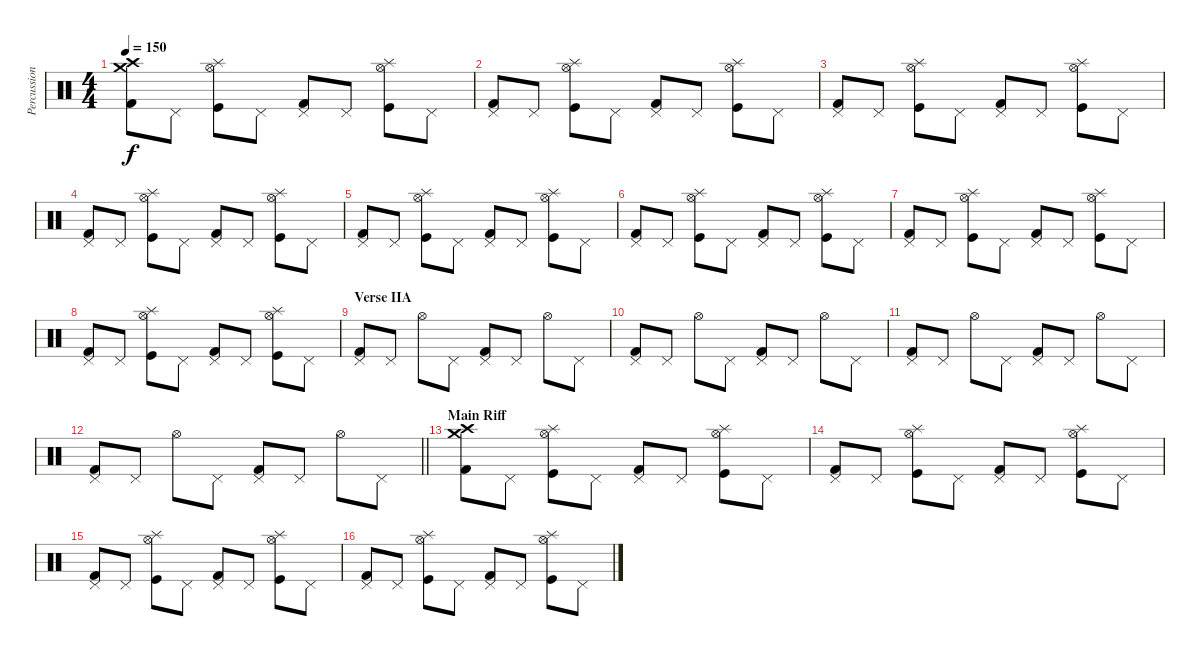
\track ("Percussion" "Percussion") {instrument percussion}
\staff {score}
\articulation defaults
\ts (4 4)
\tempo 150
\clef neutral
\ks c
("Crash high (hit)" "Crash medium (hit)" "Kick (hit) 2").8{dy f} "Pedal Hi-Hat (hit)".8 ("Hi-Hat (open)" "Splash (hit)" "Kick (hit)").8 "Pedal Hi-Hat (hit)".8 ("Pedal Hi-Hat (hit)" "Kick (hit) 2").8 "Pedal Hi-Hat (hit)".8 ("Hi-Hat (open)" "Splash (hit)" "Kick (hit)").8 "Pedal Hi-Hat (hit)".8 |
("Pedal Hi-Hat (hit)" "Kick (hit) 2").8 "Pedal Hi-Hat (hit)".8 ("Hi-Hat (open)" "Splash (hit)" "Kick (hit)").8 "Pedal Hi-Hat (hit)".8 ("Pedal Hi-Hat (hit)" "Kick (hit) 2").8 "Pedal Hi-Hat (hit)".8 ("Hi-Hat (open)" "Splash (hit)" "Kick (hit)").8 "Pedal Hi-Hat (hit)".8 |
("Pedal Hi-Hat (hit)" "Kick (hit) 2").8 "Pedal Hi-Hat (hit)".8 ("Hi-Hat (open)" "Splash (hit)" "Kick (hit)").8 "Pedal Hi-Hat (hit)".8 ("Pedal Hi-Hat (hit)" "Kick (hit) 2").8 "Pedal Hi-Hat (hit)".8 ("Hi-Hat (open)" "Splash (hit)" "Kick (hit)").8 "Pedal Hi-Hat (hit)".8 |
("Pedal Hi-Hat (hit)" "Kick (hit) 2").8 "Pedal Hi-Hat (hit)".8 ("Hi-Hat (open)" "Splash (hit)" "Kick (hit)").8 "Pedal Hi-Hat (hit)".8 ("Pedal Hi-Hat (hit)" "Kick (hit) 2").8 "Pedal Hi-Hat (hit)".8 ("Hi-Hat (open)" "Splash (hit)" "Kick (hit)").8 "Pedal Hi-Hat (hit)".8 |
("Pedal Hi-Hat (hit)" "Kick (hit) 2").8 "Pedal Hi-Hat (hit)".8 ("Hi-Hat (open)" "Splash (hit)" "Kick (hit)").8 "Pedal Hi-Hat (hit)".8 ("Pedal Hi-Hat (hit)" "Kick (hit) 2").8 "Pedal Hi-Hat (hit)".8 ("Hi-Hat (open)" "Splash (hit)" "Kick (hit)").8 "Pedal Hi-Hat (hit)".8 |
("Pedal Hi-Hat (hit)" "Kick (hit) 2").8 "Pedal Hi-Hat (hit)".8 ("Hi-Hat (open)" "Splash (hit)" "Kick (hit)").8 "Pedal Hi-Hat (hit)".8 ("Pedal Hi-Hat (hit)" "Kick (hit) 2").8 "Pedal Hi-Hat (hit)".8 ("Hi-Hat (open)" "Splash (hit)" "Kick (hit)").8 "Pedal Hi-Hat (hit)".8 |
("Pedal Hi-Hat (hit)" "Kick (hit) 2").8 "Pedal Hi-Hat (hit)".8 ("Hi-Hat (open)" "Splash (hit)" "Kick (hit)").8 "Pedal Hi-Hat (hit)".8 ("Pedal Hi-Hat (hit)" "Kick (hit) 2").8 "Pedal Hi-Hat (hit)".8 ("Hi-Hat (open)" "Splash (hit)" "Kick (hit)").8 "Pedal Hi-Hat (hit)".8 |
("Pedal Hi-Hat (hit)" "Kick (hit) 2").8 "Pedal Hi-Hat (hit)".8 ("Hi-Hat (open)" "Splash (hit)" "Kick (hit)").8 "Pedal Hi-Hat (hit)".8 ("Pedal Hi-Hat (hit)" "Kick (hit) 2").8 "Pedal Hi-Hat (hit)".8 ("Hi-Hat (open)" "Splash (hit)" "Kick (hit)").8 "Pedal Hi-Hat (hit)".8 |
\section ("" "Verse IIA")
("Pedal Hi-Hat (hit)" "Kick (hit) 2").8 "Pedal Hi-Hat (hit)".8 "Hi-Hat (open)".8 "Pedal Hi-Hat (hit)".8 ("Pedal Hi-Hat (hit)" "Kick (hit) 2").8 "Pedal Hi-Hat (hit)".8 "Hi-Hat (open)".8 "Pedal Hi-Hat (hit)".8 |
("Pedal Hi-Hat (hit)" "Kick (hit) 2").8 "Pedal Hi-Hat (hit)".8 "Hi-Hat (open)".8 "Pedal Hi-Hat (hit)".8 ("Pedal Hi-Hat (hit)" "Kick (hit) 2").8 "Pedal Hi-Hat (hit)".8 "Hi-Hat (open)".8 "Pedal Hi-Hat (hit)".8 |
("Pedal Hi-Hat (hit)" "Kick (hit) 2").8 "Pedal Hi-Hat (hit)".8 "Hi-Hat (open)".8 "Pedal Hi-Hat (hit)".8 ("Pedal Hi-Hat (hit)" "Kick (hit) 2").8 "Pedal Hi-Hat (hit)".8 "Hi-Hat (open)".8 "Pedal Hi-Hat (hit)".8 |
\barLineRight lightlight
("Pedal Hi-Hat (hit)" "Kick (hit) 2").8 "Pedal Hi-Hat (hit)".8 "Hi-Hat (open)".8 "Pedal Hi-Hat (hit)".8 ("Pedal Hi-Hat (hit)" "Kick (hit) 2").8 "Pedal Hi-Hat (hit)".8 "Hi-Hat (open)".8 "Pedal Hi-Hat (hit)".8 |
\section ("" "Main Riff")
("Crash high (hit)" "Crash medium (hit)" "Kick (hit) 2").8 "Pedal Hi-Hat (hit)".8 ("Hi-Hat (open)" "Splash (hit)" "Kick (hit)").8 "Pedal Hi-Hat (hit)".8 ("Pedal Hi-Hat (hit)" "Kick (hit) 2").8 "Pedal Hi-Hat (hit)".8 ("Hi-Hat (open)" "Splash (hit)" "Kick (hit)").8 "Pedal Hi-Hat (hit)".8 |
("Pedal Hi-Hat (hit)" "Kick (hit) 2").8 "Pedal Hi-Hat (hit)".8 ("Hi-Hat (open)" "Splash (hit)" "Kick (hit)").8 "Pedal Hi-Hat (hit)".8 ("Pedal Hi-Hat (hit)" "Kick (hit) 2").8 "Pedal Hi-Hat (hit)".8 ("Hi-Hat (open)" "Splash (hit)" "Kick (hit)").8 "Pedal Hi-Hat (hit)".8 |
("Pedal Hi-Hat (hit)" "Kick (hit) 2").8 "Pedal Hi-Hat (hit)".8 ("Hi-Hat (open)" "Splash (hit)" "Kick (hit)").8 "Pedal Hi-Hat (hit)".8 ("Pedal Hi-Hat (hit)" "Kick (hit) 2").8 "Pedal Hi-Hat (hit)".8 ("Hi-Hat (open)" "Splash (hit)" "Kick (hit)").8 "Pedal Hi-Hat (hit)".8 |
("Pedal Hi-Hat (hit)" "Kick (hit) 2").8 "Pedal Hi-Hat (hit)".8 ("Hi-Hat (open)" "Splash (hit)" "Kick (hit)").8 "Pedal Hi-Hat (hit)".8 ("Pedal Hi-Hat (hit)" "Kick (hit) 2").8 "Pedal Hi-Hat (hit)".8 ("Hi-Hat (open)" "Splash (hit)" "Kick (hit)").8 "Pedal Hi-Hat (hit)".8
